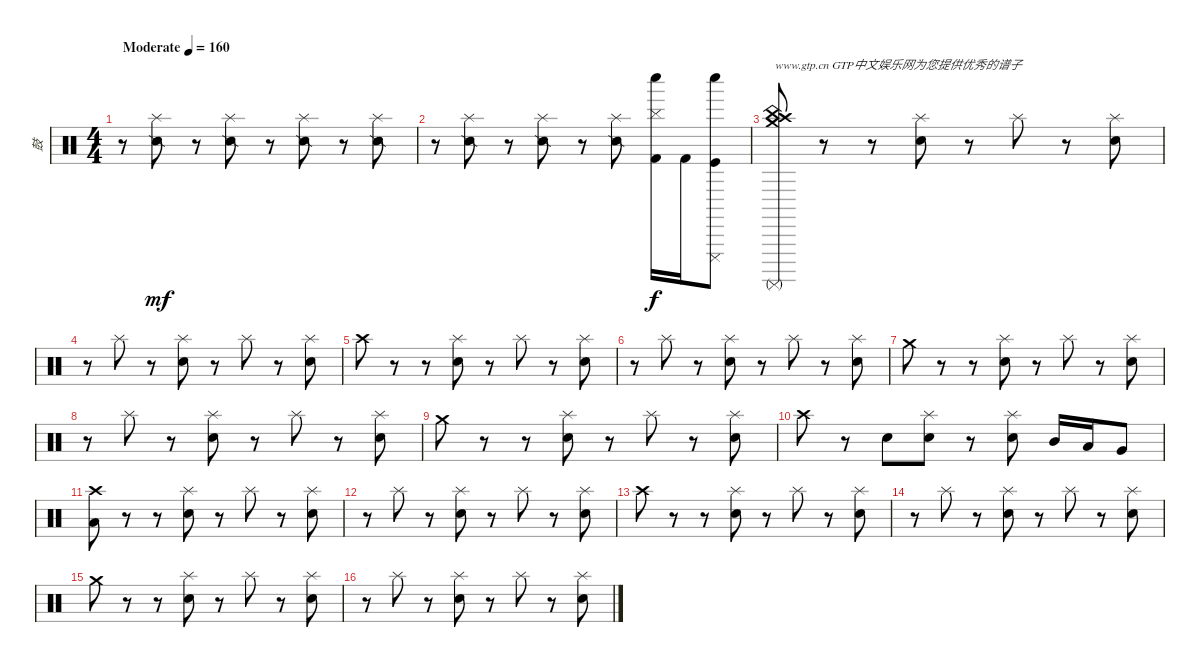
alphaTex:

\track ("鼓" "鼓") {instrument percussion}
\staff {score}
\articulation defaults
\ts (4 4)
\tempo (160 "Moderate")
\clef neutral
\ks c
r.8{dy mf} ("Splash (hit)" "Snare (side stick) 2").8 r.8 ("Splash (hit)" "Snare (side stick) 2").8 r.8 ("Splash (hit)" "Snare (side stick) 2").8 r.8 ("Splash (hit)" "Snare (side stick) 2").8 |
r.8 ("Splash (hit)" "Snare (side stick) 2").8 r.8 ("Splash (hit)" "Snare (side stick) 2").8 r.8 ("Splash (hit)" "Snare (side stick) 2").8 ("Cymbal (hit)" "Kick (hit) 2" "Whistle low (hit)").16{dy f} "Kick (hit) 2".16 ("Cuica (mute)" "Kick (hit)" "Whistle low (hit)").8 |
("Crash medium (hit)" "Crash high (hit)" "China (hit)" "Surdo (mute)").8{txt "www.gtp.cn GTP中文娱乐网为您提供优秀的谱子"} r.8 r.8 ("Splash (hit)" "Snare (hit) 2").8 r.8 "Splash (hit)".8 r.8 ("Splash (hit)" "Snare (hit) 2").8 |
r.8 "Splash (hit)".8 r.8 ("Splash (hit)" "Snare (hit) 2").8 r.8 "Splash (hit)".8 r.8 ("Splash (hit)" "Snare (hit) 2").8 |
"Crash high (hit)".8 r.8 r.8 ("Splash (hit)" "Snare (hit) 2").8 r.8 "Splash (hit)".8 r.8 ("Splash (hit)" "Snare (hit) 2").8 |
r.8 "Splash (hit)".8 r.8 ("Splash (hit)" "Snare (hit) 2").8 r.8 "Splash (hit)".8 r.8 ("Splash (hit)" "Snare (hit) 2").8 |
"Crash medium (hit)".8 r.8 r.8 ("Splash (hit)" "Snare (hit) 2").8 r.8 "Splash (hit)".8 r.8 ("Splash (hit)" "Snare (hit) 2").8 |
r.8 "Splash (hit)".8 r.8 ("Splash (hit)" "Snare (hit) 2").8 r.8 "Splash (hit)".8 r.8 ("Splash (hit)" "Snare (hit) 2").8 |
"Crash medium (hit)".8 r.8 r.8 ("Splash (hit)" "Snare (hit) 2").8 r.8 "Splash (hit)".8 r.8 ("Splash (hit)" "Snare (hit) 2").8 |
"Crash high (hit)".8 r.8 "Snare (hit) 2".8 ("Splash (hit)" "Snare (hit) 2").8 r.8 ("Splash (hit)" "Snare (hit) 2").8 "Mid Tom (hit)".16 "Low Tom (hit)".16 "Very Low Tom (hit)".8 |
("Crash high (hit)" "Low Floor Tom (hit)").8 r.8 r.8 ("Splash (hit)" "Snare (hit) 2").8 r.8 "Splash (hit)".8 r.8 ("Splash (hit)" "Snare (hit) 2").8 |
r.8 "Splash (hit)".8 r.8 ("Splash (hit)" "Snare (hit) 2").8 r.8 "Splash (hit)".8 r.8 ("Splash (hit)" "Snare (hit) 2").8 |
"Crash high (hit)".8 r.8 r.8 ("Splash (hit)" "Snare (hit) 2").8 r.8 "Splash (hit)".8 r.8 ("Splash (hit)" "Snare (hit) 2").8 |
r.8 "Splash (hit)".8 r.8 ("Splash (hit)" "Snare (hit) 2").8 r.8 "Splash (hit)".8 r.8 ("Splash (hit)" "Snare (hit) 2").8 |
"Crash medium (hit)".8 r.8 r.8 ("Splash (hit)" "Snare (hit) 2").8 r.8 "Splash (hit)".8 r.8 ("Splash (hit)" "Snare (hit) 2").8 |
r.8 "Splash (hit)".8 r.8 ("Splash (hit)" "Snare (hit) 2").8 r.8 "Splash (hit)".8 r.8 ("Splash (hit)" "Snare (hit) 2").8
